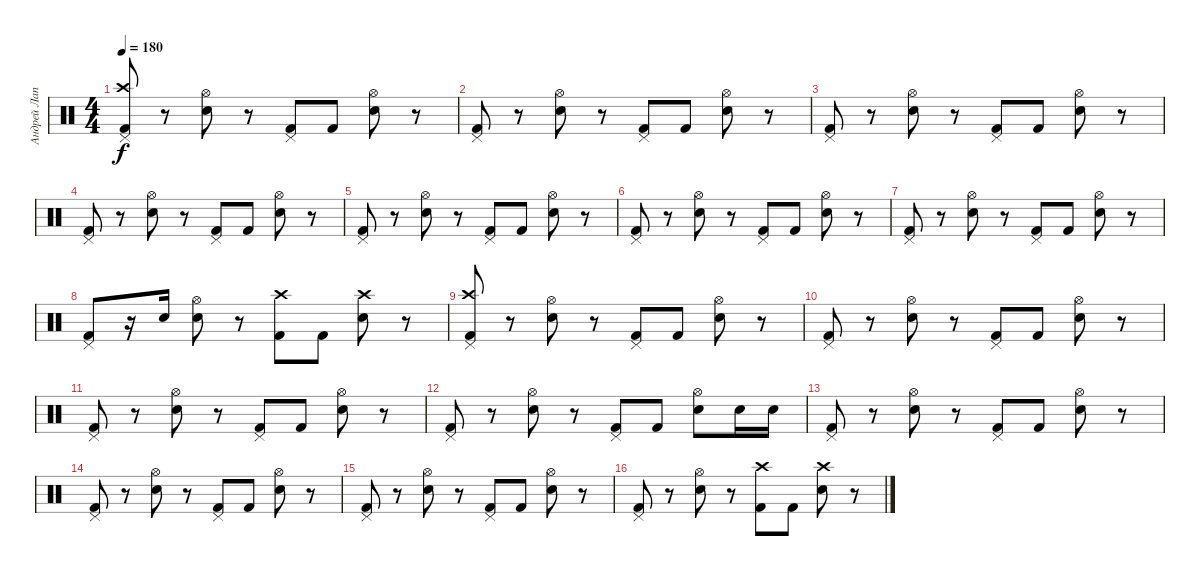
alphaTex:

\track ("Андрей Лаптев" "Андрей Лап") {instrument percussion}
\staff {score}
\articulation defaults
\ts (4 4)
\tempo 180
\clef neutral
\ks c
("Kick (hit) 2" "Crash high (hit)" "Pedal Hi-Hat (hit)").8{dy f} r.8 ("Snare (hit) 2" "Hi-Hat (open)").8 r.8 ("Kick (hit) 2" "Pedal Hi-Hat (hit)").8 "Kick (hit) 2".8 ("Snare (hit) 2" "Hi-Hat (open)").8 r.8 |
("Kick (hit) 2" "Pedal Hi-Hat (hit)").8 r.8 ("Snare (hit) 2" "Hi-Hat (open)").8 r.8 ("Kick (hit) 2" "Pedal Hi-Hat (hit)").8 "Kick (hit) 2".8 ("Snare (hit) 2" "Hi-Hat (open)").8 r.8 |
("Kick (hit) 2" "Pedal Hi-Hat (hit)").8 r.8 ("Snare (hit) 2" "Hi-Hat (open)").8 r.8 ("Kick (hit) 2" "Pedal Hi-Hat (hit)").8 "Kick (hit) 2".8 ("Snare (hit) 2" "Hi-Hat (open)").8 r.8 |
("Kick (hit) 2" "Pedal Hi-Hat (hit)").8 r.8 ("Snare (hit) 2" "Hi-Hat (open)").8 r.8 ("Kick (hit) 2" "Pedal Hi-Hat (hit)").8 "Kick (hit) 2".8 ("Snare (hit) 2" "Hi-Hat (open)").8 r.8 |
("Kick (hit) 2" "Pedal Hi-Hat (hit)").8 r.8 ("Snare (hit) 2" "Hi-Hat (open)").8 r.8 ("Kick (hit) 2" "Pedal Hi-Hat (hit)").8 "Kick (hit) 2".8 ("Snare (hit) 2" "Hi-Hat (open)").8 r.8 |
("Kick (hit) 2" "Pedal Hi-Hat (hit)").8 r.8 ("Snare (hit) 2" "Hi-Hat (open)").8 r.8 ("Kick (hit) 2" "Pedal Hi-Hat (hit)").8 "Kick (hit) 2".8 ("Snare (hit) 2" "Hi-Hat (open)").8 r.8 |
("Kick (hit) 2" "Pedal Hi-Hat (hit)").8 r.8 ("Snare (hit) 2" "Hi-Hat (open)").8 r.8 ("Kick (hit) 2" "Pedal Hi-Hat (hit)").8 "Kick (hit) 2".8 ("Snare (hit) 2" "Hi-Hat (open)").8 r.8 |
("Kick (hit) 2" "Pedal Hi-Hat (hit)").8 r.16 "Snare (hit) 2".16 ("Snare (hit) 2" "Hi-Hat (open)").8 r.8 ("Kick (hit) 2" "Crash high (hit)").8 "Kick (hit) 2".8 ("Snare (hit) 2" "Crash high (hit)").8 r.8 |
("Kick (hit) 2" "Crash high (hit)" "Pedal Hi-Hat (hit)").8 r.8 ("Snare (hit) 2" "Hi-Hat (open)").8 r.8 ("Kick (hit) 2" "Pedal Hi-Hat (hit)").8 "Kick (hit) 2".8 ("Snare (hit) 2" "Hi-Hat (open)").8 r.8 |
("Kick (hit) 2" "Pedal Hi-Hat (hit)").8 r.8 ("Snare (hit) 2" "Hi-Hat (open)").8 r.8 ("Kick (hit) 2" "Pedal Hi-Hat (hit)").8 "Kick (hit) 2".8 ("Snare (hit) 2" "Hi-Hat (open)").8 r.8 |
("Kick (hit) 2" "Pedal Hi-Hat (hit)").8 r.8 ("Snare (hit) 2" "Hi-Hat (open)").8 r.8 ("Kick (hit) 2" "Pedal Hi-Hat (hit)").8 "Kick (hit) 2".8 ("Snare (hit) 2" "Hi-Hat (open)").8 r.8 |
("Kick (hit) 2" "Pedal Hi-Hat (hit)").8 r.8 ("Snare (hit) 2" "Hi-Hat (open)").8 r.8 ("Kick (hit) 2" "Pedal Hi-Hat (hit)").8 "Kick (hit) 2".8 ("Snare (hit) 2" "Hi-Hat (open)").8 "Snare (hit) 2".16 "Snare (hit) 2".16 |
("Kick (hit) 2" "Pedal Hi-Hat (hit)").8 r.8 ("Snare (hit) 2" "Hi-Hat (open)").8 r.8 ("Kick (hit) 2" "Pedal Hi-Hat (hit)").8 "Kick (hit) 2".8 ("Snare (hit) 2" "Hi-Hat (open)").8 r.8 |
("Kick (hit) 2" "Pedal Hi-Hat (hit)").8 r.8 ("Snare (hit) 2" "Hi-Hat (open)").8 r.8 ("Kick (hit) 2" "Pedal Hi-Hat (hit)").8 "Kick (hit) 2".8 ("Snare (hit) 2" "Hi-Hat (open)").8 r.8 |
("Kick (hit) 2" "Pedal Hi-Hat (hit)").8 r.8 ("Snare (hit) 2" "Hi-Hat (open)").8 r.8 ("Kick (hit) 2" "Pedal Hi-Hat (hit)").8 "Kick (hit) 2".8 ("Snare (hit) 2" "Hi-Hat (open)").8 r.8 |
("Kick (hit) 2" "Pedal Hi-Hat (hit)").8 r.8 ("Snare (hit) 2" "Hi-Hat (open)").8 r.8 ("Kick (hit) 2" "Crash high (hit)").8 "Kick (hit) 2".8 ("Snare (hit) 2" "Crash high (hit)").8 r.8
